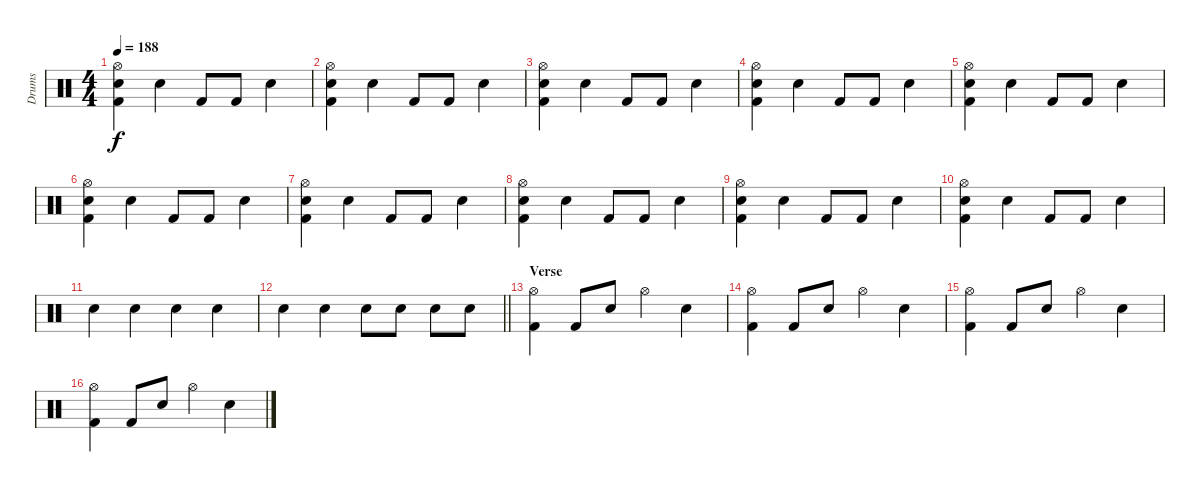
\track ("Drums" "Drums") {instrument percussion}
\staff {score}
\articulation defaults
\ts (4 4)
\tempo 188
\clef neutral
\ks c
("Hi-Hat (open)" "Electric Snare (hit)" "Kick (hit) 2").4{dy f} "Electric Snare (hit)".4 "Kick (hit) 2".8 "Kick (hit) 2".8 "Electric Snare (hit)".4 |
("Hi-Hat (open)" "Electric Snare (hit)" "Kick (hit) 2").4 "Electric Snare (hit)".4 "Kick (hit) 2".8 "Kick (hit) 2".8 "Electric Snare (hit)".4 |
("Hi-Hat (open)" "Electric Snare (hit)" "Kick (hit) 2").4 "Electric Snare (hit)".4 "Kick (hit) 2".8 "Kick (hit) 2".8 "Electric Snare (hit)".4 |
("Hi-Hat (open)" "Electric Snare (hit)" "Kick (hit) 2").4 "Electric Snare (hit)".4 "Kick (hit) 2".8 "Kick (hit) 2".8 "Electric Snare (hit)".4 |
("Hi-Hat (open)" "Electric Snare (hit)" "Kick (hit) 2").4 "Electric Snare (hit)".4 "Kick (hit) 2".8 "Kick (hit) 2".8 "Electric Snare (hit)".4 |
("Hi-Hat (open)" "Electric Snare (hit)" "Kick (hit) 2").4 "Electric Snare (hit)".4 "Kick (hit) 2".8 "Kick (hit) 2".8 "Electric Snare (hit)".4 |
("Hi-Hat (open)" "Electric Snare (hit)" "Kick (hit) 2").4 "Electric Snare (hit)".4 "Kick (hit) 2".8 "Kick (hit) 2".8 "Electric Snare (hit)".4 |
("Hi-Hat (open)" "Electric Snare (hit)" "Kick (hit) 2").4 "Electric Snare (hit)".4 "Kick (hit) 2".8 "Kick (hit) 2".8 "Electric Snare (hit)".4 |
("Hi-Hat (open)" "Electric Snare (hit)" "Kick (hit) 2").4 "Electric Snare (hit)".4 "Kick (hit) 2".8 "Kick (hit) 2".8 "Electric Snare (hit)".4 |
("Hi-Hat (open)" "Electric Snare (hit)" "Kick (hit) 2").4 "Electric Snare (hit)".4 "Kick (hit) 2".8 "Kick (hit) 2".8 "Electric Snare (hit)".4 |
"Electric Snare (hit)".4 "Electric Snare (hit)".4 "Electric Snare (hit)".4 "Electric Snare (hit)".4 |
\barLineRight lightlight "Electric Snare (hit)".4 "Electric Snare (hit)".4 "Electric Snare (hit)".8 "Electric Snare (hit)".8 "Electric Snare (hit)".8 "Electric Snare (hit)".8
|
\section ("" "Verse")
("Hi-Hat (open)" "Kick (hit) 2").4 "Kick (hit) 2".8 "Electric Snare (hit)".8 "Hi-Hat (open)".4 "Electric Snare (hit)".4 |
("Hi-Hat (open)" "Kick (hit) 2").4 "Kick (hit) 2".8 "Electric Snare (hit)".8 "Hi-Hat (open)".4 "Electric Snare (hit)".4 |
("Hi-Hat (open)" "Kick (hit) 2").4 "Kick (hit) 2".8 "Electric Snare (hit)".8 "Hi-Hat (open)".4 "Electric Snare (hit)".4 |
("Hi-Hat (open)" "Kick (hit) 2").4 "Kick (hit) 2".8 "Electric Snare (hit)".8 "Hi-Hat (open)".4 "Electric Snare (hit)".4
